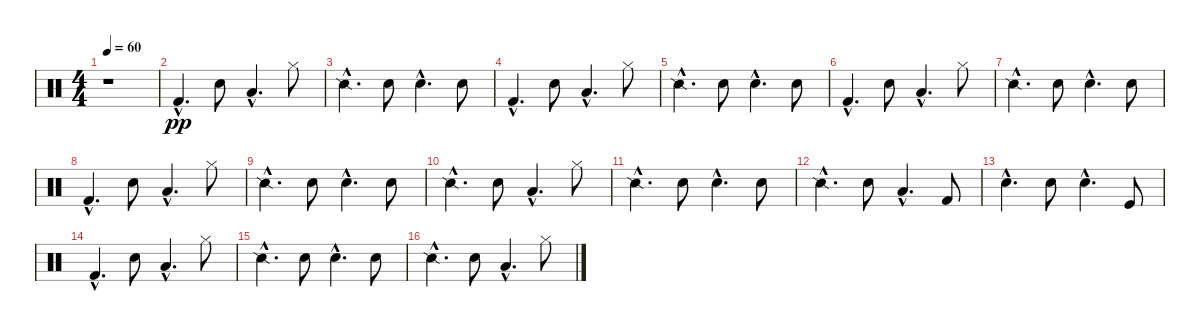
\track "" {instrument percussion}
\staff {score}
\articulation defaults
\ts (4 4)
\tempo 60
\clef neutral
\ks c
r.1{dy pp} |
"Kick (hit) 2"{hac}.4{d} "Hand Clap (hit)".8 "Low Tom (hit)"{hac}.4{d} "Hi-Hat (closed)".8 |
"Snare (side stick) 2"{hac}.4{d} "Metronome (bell)".8 "Hand Clap (hit)"{hac}.4{d} "Metronome (bell)".8 |
"Kick (hit) 2"{hac}.4{d} "Hand Clap (hit)".8 "Low Tom (hit)"{hac}.4{d} "Hi-Hat (closed)".8 |
"Snare (side stick) 2"{hac}.4{d} "Metronome (bell)".8 "Snare (hit) 2"{hac}.4{d} "Metronome (bell)".8 |
"Kick (hit) 2"{hac}.4{d} "Hand Clap (hit)".8 "Low Tom (hit)"{hac}.4{d} "Hi-Hat (closed)".8 |
"Snare (side stick) 2"{hac}.4{d} "Metronome (bell)".8 "Hand Clap (hit)"{hac}.4{d} "Metronome (bell)".8 |
"Kick (hit) 2"{hac}.4{d} "Hand Clap (hit)".8 "Low Tom (hit)"{hac}.4{d} "Hi-Hat (closed)".8 |
"Snare (side stick) 2"{hac}.4{d} "Metronome (bell)".8 "Snare (hit) 2"{hac}.4{d} "Metronome (bell)".8 |
"Snare (side stick) 2"{hac}.4{d} "Metronome (bell)".8 "Low Tom (hit)"{hac}.4{d} "Hi-Hat (closed)".8 |
"Snare (side stick) 2"{hac}.4{d} "Metronome (bell)".8 "Snare (hit) 2"{hac}.4{d} "Metronome (bell)".8 |
"Snare (side stick) 2"{hac}.4{d} "Metronome (bell)".8 "Low Floor Tom (hit)"{hac}.4{d} "Kick (hit) 2".8 |
"Metronome (bell)"{hac}.4{d} "Snare (hit) 2".8 "Snare (hit) 2"{hac}.4{d} "Kick (hit)".8 |
"Kick (hit) 2"{hac}.4{d} "Hand Clap (hit)".8 "Low Tom (hit)"{hac}.4{d} "Hi-Hat (closed)".8 |
"Snare (side stick) 2"{hac}.4{d} "Metronome (bell)".8 "Hand Clap (hit)"{hac}.4{d} "Metronome (bell)".8 |
"Snare (side stick) 2"{hac}.4{d} "Metronome (bell)".8 "Low Tom (hit)"{hac}.4{d} "Hi-Hat (closed)".8
